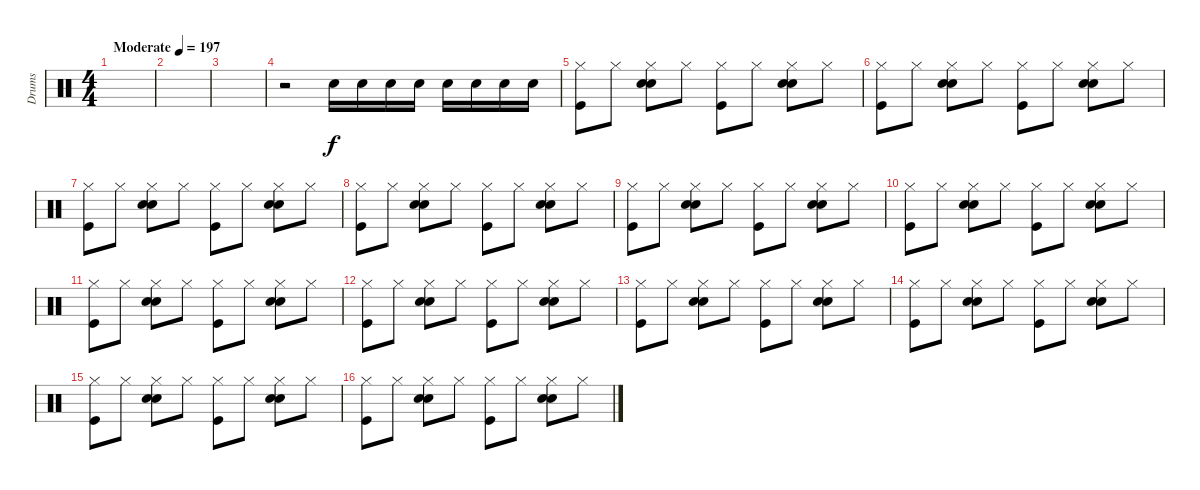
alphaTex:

\track ("Drums" "Drums") {instrument percussion}
\staff {score}
\articulation defaults
\ts (4 4)
\tempo (197 "Moderate")
\clef neutral
\ks c
|
|
|
r.2 "Snare (hit) 2".16 "Snare (hit) 2".16 "Snare (hit) 2".16 "Snare (hit) 2".16 "Snare (hit) 2".16 "Snare (hit) 2".16 "Snare (hit) 2".16 "Snare (hit) 2".16 |
("Hi-Hat (closed)" "Kick (hit)").8 "Hi-Hat (closed)".8 ("Electric Snare (hit)" "Snare (hit) 2" "Hi-Hat (closed)").8 "Hi-Hat (closed)".8 ("Hi-Hat (closed)" "Kick (hit)").8 "Hi-Hat (closed)".8 ("Electric Snare (hit)" "Snare (hit) 2" "Hi-Hat (closed)").8 "Hi-Hat (closed)".8 |
("Hi-Hat (closed)" "Kick (hit)").8 "Hi-Hat (closed)".8 ("Electric Snare (hit)" "Snare (hit) 2" "Hi-Hat (closed)").8 "Hi-Hat (closed)".8 ("Hi-Hat (closed)" "Kick (hit)").8 "Hi-Hat (closed)".8 ("Electric Snare (hit)" "Snare (hit) 2" "Hi-Hat (closed)").8 "Hi-Hat (closed)".8 |
("Hi-Hat (closed)" "Kick (hit)").8 "Hi-Hat (closed)".8 ("Electric Snare (hit)" "Snare (hit) 2" "Hi-Hat (closed)").8 "Hi-Hat (closed)".8 ("Hi-Hat (closed)" "Kick (hit)").8 "Hi-Hat (closed)".8 ("Electric Snare (hit)" "Snare (hit) 2" "Hi-Hat (closed)").8 "Hi-Hat (closed)".8 |
("Hi-Hat (closed)" "Kick (hit)").8 "Hi-Hat (closed)".8 ("Electric Snare (hit)" "Snare (hit) 2" "Hi-Hat (closed)").8 "Hi-Hat (closed)".8 ("Hi-Hat (closed)" "Kick (hit)").8 "Hi-Hat (closed)".8 ("Electric Snare (hit)" "Snare (hit) 2" "Hi-Hat (closed)").8 "Hi-Hat (closed)".8 |
("Hi-Hat (closed)" "Kick (hit)").8 "Hi-Hat (closed)".8 ("Electric Snare (hit)" "Snare (hit) 2" "Hi-Hat (closed)").8 "Hi-Hat (closed)".8 ("Hi-Hat (closed)" "Kick (hit)").8 "Hi-Hat (closed)".8 ("Electric Snare (hit)" "Snare (hit) 2" "Hi-Hat (closed)").8 "Hi-Hat (closed)".8 |
("Hi-Hat (closed)" "Kick (hit)").8 "Hi-Hat (closed)".8 ("Electric Snare (hit)" "Snare (hit) 2" "Hi-Hat (closed)").8 "Hi-Hat (closed)".8 ("Hi-Hat (closed)" "Kick (hit)").8 "Hi-Hat (closed)".8 ("Electric Snare (hit)" "Snare (hit) 2" "Hi-Hat (closed)").8 "Hi-Hat (closed)".8 |
("Hi-Hat (closed)" "Kick (hit)").8 "Hi-Hat (closed)".8 ("Electric Snare (hit)" "Snare (hit) 2" "Hi-Hat (closed)").8 "Hi-Hat (closed)".8 ("Hi-Hat (closed)" "Kick (hit)").8 "Hi-Hat (closed)".8 ("Electric Snare (hit)" "Snare (hit) 2" "Hi-Hat (closed)").8 "Hi-Hat (closed)".8 |
("Hi-Hat (closed)" "Kick (hit)").8 "Hi-Hat (closed)".8 ("Electric Snare (hit)" "Snare (hit) 2" "Hi-Hat (closed)").8 "Hi-Hat (closed)".8 ("Hi-Hat (closed)" "Kick (hit)").8 "Hi-Hat (closed)".8 ("Electric Snare (hit)" "Snare (hit) 2" "Hi-Hat (closed)").8 "Hi-Hat (closed)".8 |
("Hi-Hat (closed)" "Kick (hit)").8 "Hi-Hat (closed)".8 ("Electric Snare (hit)" "Snare (hit) 2" "Hi-Hat (closed)").8 "Hi-Hat (closed)".8 ("Hi-Hat (closed)" "Kick (hit)").8 "Hi-Hat (closed)".8 ("Electric Snare (hit)" "Snare (hit) 2" "Hi-Hat (closed)").8 "Hi-Hat (closed)".8 |
("Hi-Hat (closed)" "Kick (hit)").8 "Hi-Hat (closed)".8 ("Electric Snare (hit)" "Snare (hit) 2" "Hi-Hat (closed)").8 "Hi-Hat (closed)".8 ("Hi-Hat (closed)" "Kick (hit)").8 "Hi-Hat (closed)".8 ("Electric Snare (hit)" "Snare (hit) 2" "Hi-Hat (closed)").8 "Hi-Hat (closed)".8 |
("Hi-Hat (closed)" "Kick (hit)").8 "Hi-Hat (closed)".8 ("Electric Snare (hit)" "Snare (hit) 2" "Hi-Hat (closed)").8 "Hi-Hat (closed)".8 ("Hi-Hat (closed)" "Kick (hit)").8 "Hi-Hat (closed)".8 ("Electric Snare (hit)" "Snare (hit) 2" "Hi-Hat (closed)").8 "Hi-Hat (closed)".8 |
("Hi-Hat (closed)" "Kick (hit)").8 "Hi-Hat (closed)".8 ("Electric Snare (hit)" "Snare (hit) 2" "Hi-Hat (closed)").8 "Hi-Hat (closed)".8 ("Hi-Hat (closed)" "Kick (hit)").8 "Hi-Hat (closed)".8 ("Electric Snare (hit)" "Snare (hit) 2" "Hi-Hat (closed)").8 "Hi-Hat (closed)".8
